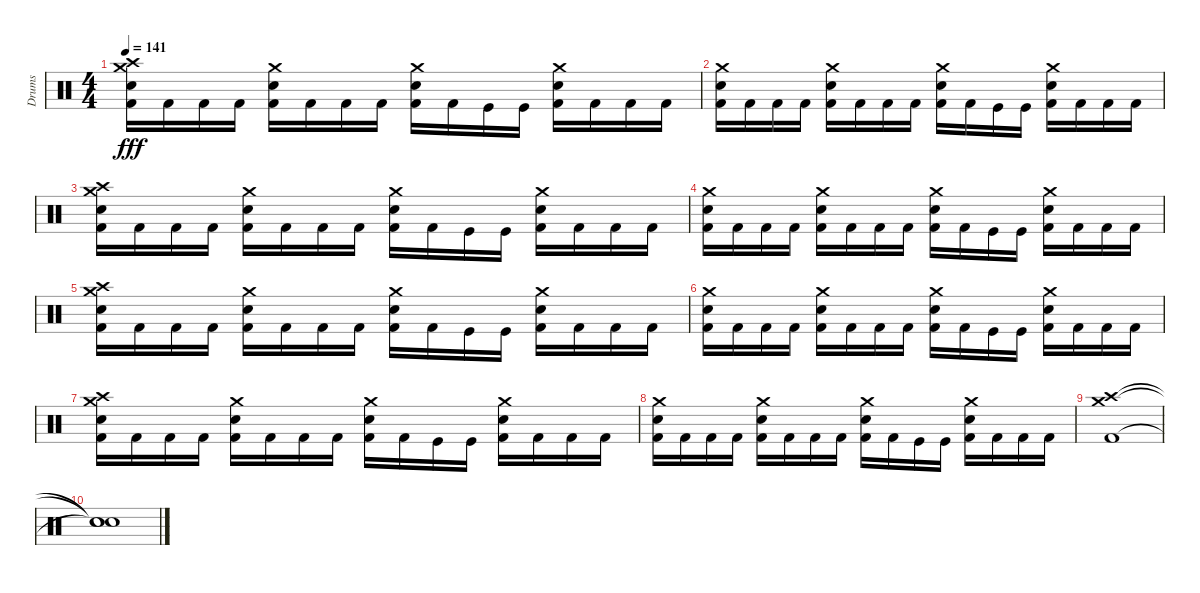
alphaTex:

\track ("Drums" "Drums") {instrument percussion}
\staff {score}
\articulation defaults
\ts (4 4)
\tempo 141
\clef neutral
\ks c
("Crash medium (hit)" "Crash high (hit)" "Electric Snare (hit)" "Kick (hit) 2").16{dy fff} "Kick (hit) 2".16 "Kick (hit) 2".16 "Kick (hit) 2".16 ("Crash medium (hit)" "Electric Snare (hit)" "Kick (hit) 2").16 "Kick (hit) 2".16 "Kick (hit) 2".16 "Kick (hit) 2".16 ("Crash medium (hit)" "Electric Snare (hit)" "Kick (hit) 2").16 "Kick (hit) 2".16 "Kick (hit)".16 "Kick (hit)".16 ("Crash medium (hit)" "Electric Snare (hit)" "Kick (hit) 2").16 "Kick (hit) 2".16 "Kick (hit) 2".16 "Kick (hit) 2".16 |
("Crash medium (hit)" "Electric Snare (hit)" "Kick (hit) 2").16 "Kick (hit) 2".16 "Kick (hit) 2".16 "Kick (hit) 2".16 ("Crash medium (hit)" "Electric Snare (hit)" "Kick (hit) 2").16 "Kick (hit) 2".16 "Kick (hit) 2".16 "Kick (hit) 2".16 ("Crash medium (hit)" "Electric Snare (hit)" "Kick (hit) 2").16 "Kick (hit) 2".16 "Kick (hit)".16 "Kick (hit)".16 ("Crash medium (hit)" "Electric Snare (hit)" "Kick (hit) 2").16 "Kick (hit) 2".16 "Kick (hit) 2".16 "Kick (hit) 2".16 |
("Crash medium (hit)" "Crash high (hit)" "Electric Snare (hit)" "Kick (hit) 2").16 "Kick (hit) 2".16 "Kick (hit) 2".16 "Kick (hit) 2".16 ("Crash medium (hit)" "Electric Snare (hit)" "Kick (hit) 2").16 "Kick (hit) 2".16 "Kick (hit) 2".16 "Kick (hit) 2".16 ("Crash medium (hit)" "Electric Snare (hit)" "Kick (hit) 2").16 "Kick (hit) 2".16 "Kick (hit)".16 "Kick (hit)".16 ("Crash medium (hit)" "Electric Snare (hit)" "Kick (hit) 2").16 "Kick (hit) 2".16 "Kick (hit) 2".16 "Kick (hit) 2".16 |
("Crash medium (hit)" "Electric Snare (hit)" "Kick (hit) 2").16 "Kick (hit) 2".16 "Kick (hit) 2".16 "Kick (hit) 2".16 ("Crash medium (hit)" "Electric Snare (hit)" "Kick (hit) 2").16 "Kick (hit) 2".16 "Kick (hit) 2".16 "Kick (hit) 2".16 ("Crash medium (hit)" "Electric Snare (hit)" "Kick (hit) 2").16 "Kick (hit) 2".16 "Kick (hit)".16 "Kick (hit)".16 ("Crash medium (hit)" "Electric Snare (hit)" "Kick (hit) 2").16 "Kick (hit) 2".16 "Kick (hit) 2".16 "Kick (hit) 2".16 |
("Crash medium (hit)" "Crash high (hit)" "Electric Snare (hit)" "Kick (hit) 2").16 "Kick (hit) 2".16 "Kick (hit) 2".16 "Kick (hit) 2".16 ("Crash medium (hit)" "Electric Snare (hit)" "Kick (hit) 2").16 "Kick (hit) 2".16 "Kick (hit) 2".16 "Kick (hit) 2".16 ("Crash medium (hit)" "Electric Snare (hit)" "Kick (hit) 2").16 "Kick (hit) 2".16 "Kick (hit)".16 "Kick (hit)".16 ("Crash medium (hit)" "Electric Snare (hit)" "Kick (hit) 2").16 "Kick (hit) 2".16 "Kick (hit) 2".16 "Kick (hit) 2".16 |
("Crash medium (hit)" "Electric Snare (hit)" "Kick (hit) 2").16 "Kick (hit) 2".16 "Kick (hit) 2".16 "Kick (hit) 2".16 ("Crash medium (hit)" "Electric Snare (hit)" "Kick (hit) 2").16 "Kick (hit) 2".16 "Kick (hit) 2".16 "Kick (hit) 2".16 ("Crash medium (hit)" "Electric Snare (hit)" "Kick (hit) 2").16 "Kick (hit) 2".16 "Kick (hit)".16 "Kick (hit)".16 ("Crash medium (hit)" "Electric Snare (hit)" "Kick (hit) 2").16 "Kick (hit) 2".16 "Kick (hit) 2".16 "Kick (hit) 2".16 |
("Crash medium (hit)" "Crash high (hit)" "Electric Snare (hit)" "Kick (hit) 2").16 "Kick (hit) 2".16 "Kick (hit) 2".16 "Kick (hit) 2".16 ("Crash medium (hit)" "Electric Snare (hit)" "Kick (hit) 2").16 "Kick (hit) 2".16 "Kick (hit) 2".16 "Kick (hit) 2".16 ("Crash medium (hit)" "Electric Snare (hit)" "Kick (hit) 2").16 "Kick (hit) 2".16 "Kick (hit)".16 "Kick (hit)".16 ("Crash medium (hit)" "Electric Snare (hit)" "Kick (hit) 2").16 "Kick (hit) 2".16 "Kick (hit) 2".16 "Kick (hit) 2".16 |
("Crash medium (hit)" "Electric Snare (hit)" "Kick (hit) 2").16 "Kick (hit) 2".16 "Kick (hit) 2".16 "Kick (hit) 2".16 ("Crash medium (hit)" "Electric Snare (hit)" "Kick (hit) 2").16 "Kick (hit) 2".16 "Kick (hit) 2".16 "Kick (hit) 2".16 ("Crash medium (hit)" "Electric Snare (hit)" "Kick (hit) 2").16 "Kick (hit) 2".16 "Kick (hit)".16 "Kick (hit)".16 ("Crash medium (hit)" "Electric Snare (hit)" "Kick (hit) 2").16 "Kick (hit) 2".16 "Kick (hit) 2".16 "Kick (hit) 2".16 |
("Crash high (hit)" "Crash medium (hit)" "Kick (hit) 2").1 |
("Snare (hit)"{t} "Snare (hit)"{t} "Snare (hit)"{t}).1
